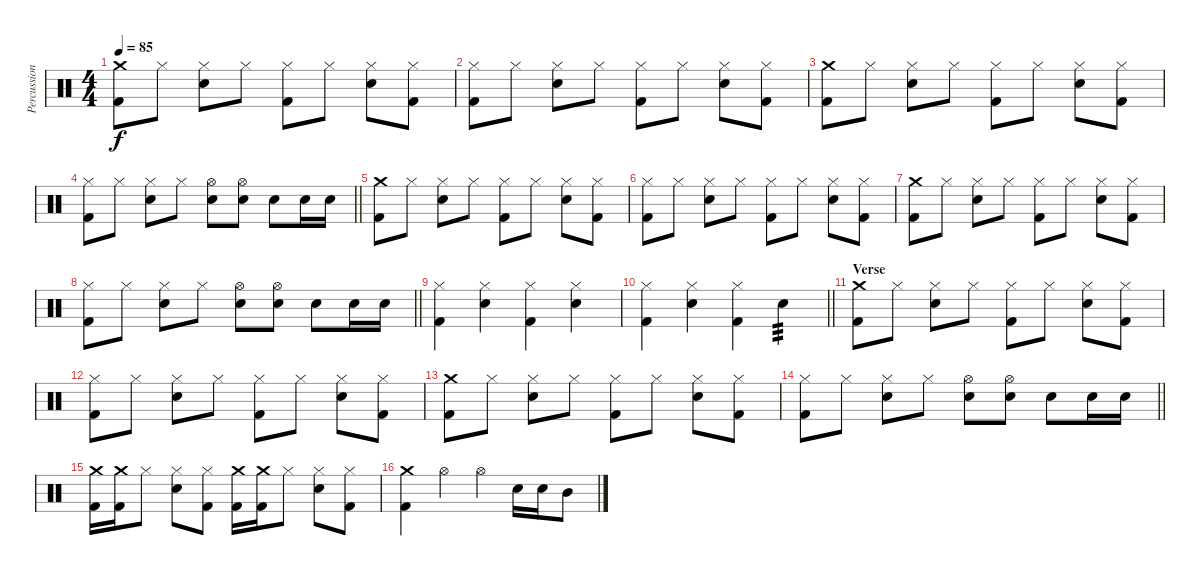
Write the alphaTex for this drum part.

\track ("Percussion" "Percussion") {instrument percussion}
\staff {score}
\articulation defaults
\ts (4 4)
\tempo 85
\clef neutral
\ks c
("Crash medium (hit)" "Kick (hit) 2").8{dy f} "Hi-Hat (closed)".8 ("Hi-Hat (closed)" "Electric Snare (hit)").8 "Hi-Hat (closed)".8 ("Hi-Hat (closed)" "Kick (hit) 2").8 "Hi-Hat (closed)".8 ("Hi-Hat (closed)" "Electric Snare (hit)").8 ("Hi-Hat (closed)" "Kick (hit) 2").8 |
("Hi-Hat (closed)" "Kick (hit) 2").8 "Hi-Hat (closed)".8 ("Hi-Hat (closed)" "Electric Snare (hit)").8 "Hi-Hat (closed)".8 ("Hi-Hat (closed)" "Kick (hit) 2").8 "Hi-Hat (closed)".8 ("Hi-Hat (closed)" "Electric Snare (hit)").8 ("Hi-Hat (closed)" "Kick (hit) 2").8 |
("Crash medium (hit)" "Kick (hit) 2").8 "Hi-Hat (closed)".8 ("Hi-Hat (closed)" "Electric Snare (hit)").8 "Hi-Hat (closed)".8 ("Hi-Hat (closed)" "Kick (hit) 2").8 "Hi-Hat (closed)".8 ("Hi-Hat (closed)" "Electric Snare (hit)").8 ("Hi-Hat (closed)" "Kick (hit) 2").8 |
\barLineRight lightlight
("Hi-Hat (closed)" "Kick (hit) 2").8 "Hi-Hat (closed)".8 ("Hi-Hat (closed)" "Electric Snare (hit)").8 "Hi-Hat (closed)".8 ("Hi-Hat (open)" "Electric Snare (hit)").8 ("Hi-Hat (open)" "Electric Snare (hit)").8 "Electric Snare (hit)".8 "Electric Snare (hit)".16 "Electric Snare (hit)".16 |
("Crash medium (hit)" "Kick (hit) 2").8 "Hi-Hat (closed)".8 ("Hi-Hat (closed)" "Electric Snare (hit)").8 "Hi-Hat (closed)".8 ("Hi-Hat (closed)" "Kick (hit) 2").8 "Hi-Hat (closed)".8 ("Hi-Hat (closed)" "Electric Snare (hit)").8 ("Hi-Hat (closed)" "Kick (hit) 2").8 |
("Hi-Hat (closed)" "Kick (hit) 2").8 "Hi-Hat (closed)".8 ("Hi-Hat (closed)" "Electric Snare (hit)").8 "Hi-Hat (closed)".8 ("Hi-Hat (closed)" "Kick (hit) 2").8 "Hi-Hat (closed)".8 ("Hi-Hat (closed)" "Electric Snare (hit)").8 ("Hi-Hat (closed)" "Kick (hit) 2").8 |
("Crash medium (hit)" "Kick (hit) 2").8 "Hi-Hat (closed)".8 ("Hi-Hat (closed)" "Electric Snare (hit)").8 "Hi-Hat (closed)".8 ("Hi-Hat (closed)" "Kick (hit) 2").8 "Hi-Hat (closed)".8 ("Hi-Hat (closed)" "Electric Snare (hit)").8 ("Hi-Hat (closed)" "Kick (hit) 2").8 |
\barLineRight lightlight
("Hi-Hat (closed)" "Kick (hit) 2").8 "Hi-Hat (closed)".8 ("Hi-Hat (closed)" "Electric Snare (hit)").8 "Hi-Hat (closed)".8 ("Hi-Hat (open)" "Electric Snare (hit)").8 ("Hi-Hat (open)" "Electric Snare (hit)").8 "Electric Snare (hit)".8 "Electric Snare (hit)".16 "Electric Snare (hit)".16 |
("Hi-Hat (closed)" "Kick (hit) 2").4 ("Hi-Hat (closed)" "Electric Snare (hit)").4 ("Hi-Hat (closed)" "Kick (hit) 2").4 ("Hi-Hat (closed)" "Electric Snare (hit)").4 |
\barLineRight lightlight
("Hi-Hat (closed)" "Kick (hit) 2").4 ("Hi-Hat (closed)" "Electric Snare (hit)").4 ("Hi-Hat (closed)" "Kick (hit) 2").4 "Electric Snare (hit)".4{tp 3} |
\section ("" "Verse")
("Crash medium (hit)" "Kick (hit) 2").8 "Hi-Hat (closed)".8 ("Hi-Hat (closed)" "Electric Snare (hit)").8 "Hi-Hat (closed)".8 ("Hi-Hat (closed)" "Kick (hit) 2").8 "Hi-Hat (closed)".8 ("Hi-Hat (closed)" "Electric Snare (hit)").8 ("Hi-Hat (closed)" "Kick (hit) 2").8 |
("Hi-Hat (closed)" "Kick (hit) 2").8 "Hi-Hat (closed)".8 ("Hi-Hat (closed)" "Electric Snare (hit)").8 "Hi-Hat (closed)".8 ("Hi-Hat (closed)" "Kick (hit) 2").8 "Hi-Hat (closed)".8 ("Hi-Hat (closed)" "Electric Snare (hit)").8 ("Hi-Hat (closed)" "Kick (hit) 2").8 |
("Crash medium (hit)" "Kick (hit) 2").8 "Hi-Hat (closed)".8 ("Hi-Hat (closed)" "Electric Snare (hit)").8 "Hi-Hat (closed)".8 ("Hi-Hat (closed)" "Kick (hit) 2").8 "Hi-Hat (closed)".8 ("Hi-Hat (closed)" "Electric Snare (hit)").8 ("Hi-Hat (closed)" "Kick (hit) 2").8 |
\barLineRight lightlight
("Hi-Hat (closed)" "Kick (hit) 2").8 "Hi-Hat (closed)".8 ("Hi-Hat (closed)" "Electric Snare (hit)").8 "Hi-Hat (closed)".8 ("Hi-Hat (open)" "Electric Snare (hit)").8 ("Hi-Hat (open)" "Electric Snare (hit)").8 "Electric Snare (hit)".8 "Electric Snare (hit)".16 "Electric Snare (hit)".16 |
("Crash medium (hit)" "Kick (hit) 2").16 ("Crash medium (hit)" "Kick (hit) 2").16 "Hi-Hat (closed)".8 ("Hi-Hat (closed)" "Electric Snare (hit)").8 ("Hi-Hat (closed)" "Kick (hit) 2").8 ("Crash medium (hit)" "Kick (hit) 2").16 ("Crash medium (hit)" "Kick (hit) 2").16 "Hi-Hat (closed)".8 ("Hi-Hat (closed)" "Electric Snare (hit)").8 ("Hi-Hat (closed)" "Kick (hit) 2").8 |
("Crash medium (hit)" "Kick (hit) 2").4 "Hi-Hat (open)".4 "Hi-Hat (open)".4 "Electric Snare (hit)".16 "Electric Snare (hit)".16 "Mid Tom (hit)".8
